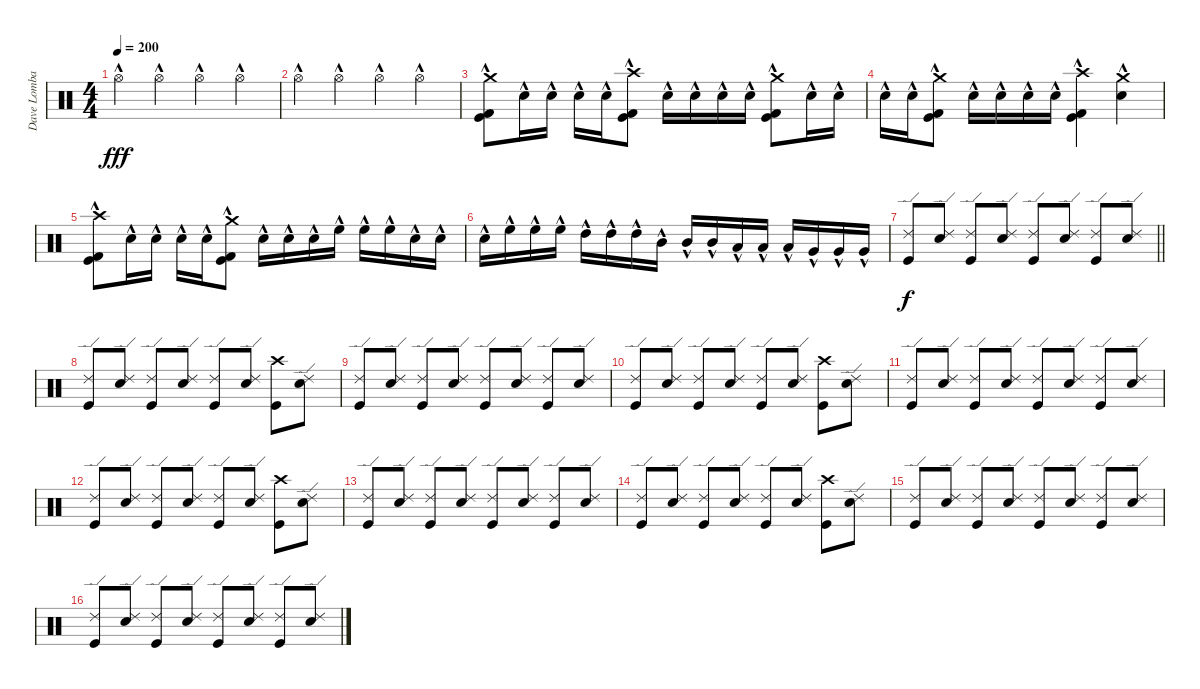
\track ("Dave Lombardo:" "Dave Lomba") {instrument percussion}
\staff {score}
\articulation defaults
\ts (4 4)
\tempo 200
\clef neutral
\ks c "Hi-Hat (open)"{hac}.4{dy fff} "Hi-Hat (open)"{hac}.4 "Hi-Hat (open)"{hac}.4 "Hi-Hat (open)"{hac}.4
|
"Hi-Hat (open)"{hac}.4 "Hi-Hat (open)"{hac}.4 "Hi-Hat (open)"{hac}.4 "Hi-Hat (open)"{hac}.4 |
("Crash medium (hit)" "Kick (hit) 2"{hac} "Kick (hit)"{hac}).8 "Snare (hit) 2"{hac}.16 "Snare (hit) 2"{hac}.16 "Snare (hit) 2"{hac}.16 "Snare (hit) 2"{hac}.16 ("Crash high (hit)" "Kick (hit) 2"{hac} "Kick (hit)"{hac}).8 "Snare (hit) 2"{hac}.16 "Snare (hit) 2"{hac}.16 "Snare (hit) 2"{hac}.16 "Snare (hit) 2"{hac}.16 ("Crash medium (hit)" "Kick (hit) 2"{hac} "Kick (hit)"{hac}).8 "Snare (hit) 2"{hac}.16 "Snare (hit) 2"{hac}.16 |
"Snare (hit) 2"{hac}.16 "Snare (hit) 2"{hac}.16 ("Crash medium (hit)" "Kick (hit)"{hac} "Kick (hit) 2"{hac}).8 "Snare (hit) 2"{hac}.16 "Snare (hit) 2"{hac}.16 "Snare (hit) 2"{hac}.16 "Snare (hit) 2"{hac}.16 ("Crash high (hit)" "Kick (hit) 2"{hac} "Kick (hit)"{hac}).4 ("Crash medium (hit)"{hac} "Snare (hit) 2"{hac}).4 |
("Crash high (hit)"{hac} "Kick (hit) 2"{hac} "Kick (hit)"{hac}).8 "Snare (hit) 2"{hac}.16 "Snare (hit) 2"{hac}.16 "Snare (hit) 2"{hac}.16 "Snare (hit) 2"{hac}.16 ("Crash medium (hit)"{hac} "Kick (hit)"{hac} "Kick (hit) 2"{hac}).8 "Snare (hit) 2"{hac}.16 "Snare (hit) 2"{hac}.16 "Snare (hit) 2"{hac}.16 "High Floor Tom (hit)"{hac}.16 "High Floor Tom (hit)"{hac}.16 "High Floor Tom (hit)"{hac}.16 "Snare (hit) 2"{hac}.16 "Snare (hit) 2"{hac}.16 |
"Snare (hit) 2"{hac}.16 "High Floor Tom (hit)"{hac}.16 "High Floor Tom (hit)"{hac}.16 "High Floor Tom (hit)"{hac}.16 "High Tom (hit)"{hac}.16 "High Tom (hit)"{hac}.16 "High Tom (hit)"{hac}.16 "Mid Tom (hit)"{hac}.16 "Mid Tom (hit)"{hac}.16 "Mid Tom (hit)"{hac}.16 "Low Tom (hit)"{hac}.16 "Low Tom (hit)"{hac}.16 "Low Tom (hit)"{hac}.16 "Very Low Tom (hit)"{hac}.16 "Very Low Tom (hit)"{hac}.16 "Very Low Tom (hit)"{hac}.16 |
\barLineRight lightlight
("Ride (edge) 2" "Kick (hit)").8{dy f} ("Ride (edge) 2" "Snare (hit) 2").8 ("Ride (edge) 2" "Kick (hit)").8 ("Ride (edge) 2" "Snare (hit) 2").8 ("Ride (edge) 2" "Kick (hit)").8 ("Ride (edge) 2" "Snare (hit) 2").8 ("Ride (edge) 2" "Kick (hit)").8 ("Ride (edge) 2" "Snare (hit) 2").8 |
\section ("" "")
("Ride (edge) 2" "Kick (hit)").8 ("Ride (edge) 2" "Snare (hit) 2").8 ("Ride (edge) 2" "Kick (hit)").8 ("Ride (edge) 2" "Snare (hit) 2").8 ("Ride (edge) 2" "Kick (hit)").8 ("Ride (edge) 2" "Snare (hit) 2").8 ("Crash high (hit)" "Kick (hit)").8 ("Ride (edge) 2" "Snare (hit) 2").8 |
("Ride (edge) 2" "Kick (hit)").8 ("Ride (edge) 2" "Snare (hit) 2").8 ("Ride (edge) 2" "Kick (hit)").8 ("Ride (edge) 2" "Snare (hit) 2").8 ("Ride (edge) 2" "Kick (hit)").8 ("Ride (edge) 2" "Snare (hit) 2").8 ("Ride (edge) 2" "Kick (hit)").8 ("Ride (edge) 2" "Snare (hit) 2").8 |
("Ride (edge) 2" "Kick (hit)").8 ("Ride (edge) 2" "Snare (hit) 2").8 ("Ride (edge) 2" "Kick (hit)").8 ("Ride (edge) 2" "Snare (hit) 2").8 ("Ride (edge) 2" "Kick (hit)").8 ("Ride (edge) 2" "Snare (hit) 2").8 ("Crash high (hit)" "Kick (hit)").8 ("Ride (edge) 2" "Snare (hit) 2").8 |
("Ride (edge) 2" "Kick (hit)").8 ("Ride (edge) 2" "Snare (hit) 2").8 ("Ride (edge) 2" "Kick (hit)").8 ("Ride (edge) 2" "Snare (hit) 2").8 ("Ride (edge) 2" "Kick (hit)").8 ("Ride (edge) 2" "Snare (hit) 2").8 ("Ride (edge) 2" "Kick (hit)").8 ("Ride (edge) 2" "Snare (hit) 2").8 |
("Ride (edge) 2" "Kick (hit)").8 ("Ride (edge) 2" "Snare (hit) 2").8 ("Ride (edge) 2" "Kick (hit)").8 ("Ride (edge) 2" "Snare (hit) 2").8 ("Ride (edge) 2" "Kick (hit)").8 ("Ride (edge) 2" "Snare (hit) 2").8 ("Crash high (hit)" "Kick (hit)").8 ("Ride (edge) 2" "Snare (hit) 2").8 |
("Ride (edge) 2" "Kick (hit)").8 ("Ride (edge) 2" "Snare (hit) 2").8 ("Ride (edge) 2" "Kick (hit)").8 ("Ride (edge) 2" "Snare (hit) 2").8 ("Ride (edge) 2" "Kick (hit)").8 ("Ride (edge) 2" "Snare (hit) 2").8 ("Ride (edge) 2" "Kick (hit)").8 ("Ride (edge) 2" "Snare (hit) 2").8 |
("Ride (edge) 2" "Kick (hit)").8 ("Ride (edge) 2" "Snare (hit) 2").8 ("Ride (edge) 2" "Kick (hit)").8 ("Ride (edge) 2" "Snare (hit) 2").8 ("Ride (edge) 2" "Kick (hit)").8 ("Ride (edge) 2" "Snare (hit) 2").8 ("Crash high (hit)" "Kick (hit)").8 ("Ride (edge) 2" "Snare (hit) 2").8 |
("Ride (edge) 2" "Kick (hit)").8 ("Ride (edge) 2" "Snare (hit) 2").8 ("Ride (edge) 2" "Kick (hit)").8 ("Ride (edge) 2" "Snare (hit) 2").8 ("Ride (edge) 2" "Kick (hit)").8 ("Ride (edge) 2" "Snare (hit) 2").8 ("Ride (edge) 2" "Kick (hit)").8 ("Ride (edge) 2" "Snare (hit) 2").8 |
("Ride (edge) 2" "Kick (hit)").8 ("Ride (edge) 2" "Snare (hit) 2").8 ("Ride (edge) 2" "Kick (hit)").8 ("Ride (edge) 2" "Snare (hit) 2").8 ("Ride (edge) 2" "Kick (hit)").8 ("Ride (edge) 2" "Snare (hit) 2").8 ("Ride (edge) 2" "Kick (hit)").8 ("Ride (edge) 2" "Snare (hit) 2").8
